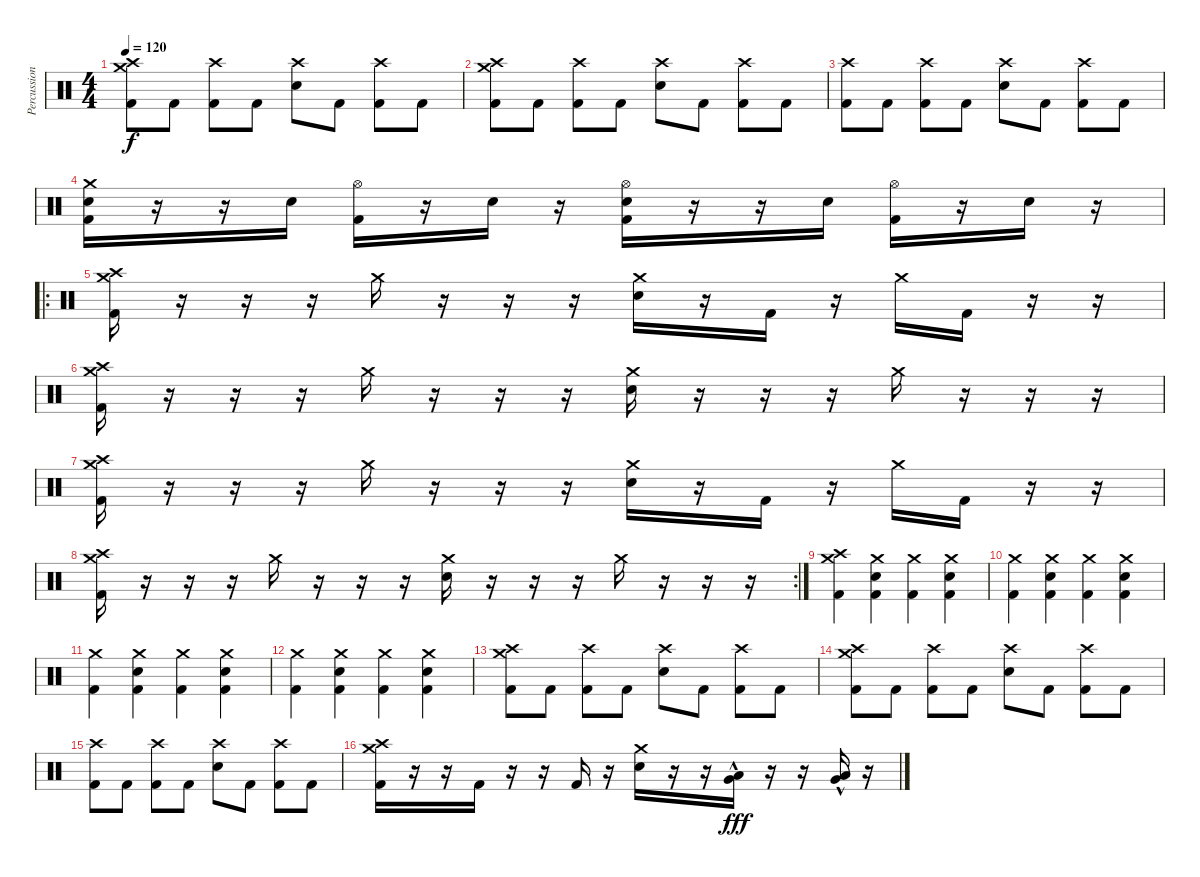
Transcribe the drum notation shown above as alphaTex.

\track ("Percussion" "Percussion") {instrument percussion}
\staff {score}
\articulation defaults
\ts (4 4)
\tempo 120
\clef neutral
\ks c
("Crash high (hit)" "Crash medium (hit)" "Kick (hit) 2").8{dy f} "Kick (hit) 2".8 ("Crash high (hit)" "Kick (hit) 2").8 "Kick (hit) 2".8 ("Crash high (hit)" "Electric Snare (hit)").8 "Kick (hit) 2".8 ("Crash high (hit)" "Kick (hit) 2").8 "Kick (hit) 2".8 |
("Crash high (hit)" "Crash medium (hit)" "Kick (hit) 2").8 "Kick (hit) 2".8 ("Crash high (hit)" "Kick (hit) 2").8 "Kick (hit) 2".8 ("Crash high (hit)" "Electric Snare (hit)").8 "Kick (hit) 2".8 ("Crash high (hit)" "Kick (hit) 2").8 "Kick (hit) 2".8 |
("Crash high (hit)" "Kick (hit) 2").8 "Kick (hit) 2".8 ("Crash high (hit)" "Kick (hit) 2").8 "Kick (hit) 2".8 ("Crash high (hit)" "Electric Snare (hit)").8 "Kick (hit) 2".8 ("Crash high (hit)" "Kick (hit) 2").8 "Kick (hit) 2".8 |
("Crash medium (hit)" "Kick (hit) 2" "Electric Snare (hit)").16 r.16 r.16 "Electric Snare (hit)".16 ("Hi-Hat (open)" "Kick (hit) 2").16 r.16 "Electric Snare (hit)".16 r.16 ("Hi-Hat (open)" "Kick (hit) 2" "Electric Snare (hit)").16 r.16 r.16 "Electric Snare (hit)".16 ("Hi-Hat (open)" "Kick (hit) 2").16 r.16 "Electric Snare (hit)".16 r.16 |
\ro
("Crash medium (hit)" "Crash high (hit)" "Kick (hit) 2").16 r.16 r.16 r.16 "Crash medium (hit)".16 r.16 r.16 r.16 ("Crash medium (hit)" "Electric Snare (hit)").16 r.16 "Kick (hit) 2".16 r.16 "Crash medium (hit)".16 "Kick (hit) 2".16 r.16 r.16 |
("Crash medium (hit)" "Crash high (hit)" "Kick (hit) 2").16 r.16 r.16 r.16 "Crash medium (hit)".16 r.16 r.16 r.16 ("Crash medium (hit)" "Electric Snare (hit)").16 r.16 r.16 r.16 "Crash medium (hit)".16 r.16 r.16 r.16 |
("Crash medium (hit)" "Crash high (hit)" "Kick (hit) 2").16 r.16 r.16 r.16 "Crash medium (hit)".16 r.16 r.16 r.16 ("Crash medium (hit)" "Electric Snare (hit)").16 r.16 "Kick (hit) 2".16 r.16 "Crash medium (hit)".16 "Kick (hit) 2".16 r.16 r.16 |
\rc 2
("Crash medium (hit)" "Crash high (hit)" "Kick (hit) 2").16 r.16 r.16 r.16 "Crash medium (hit)".16 r.16 r.16 r.16 ("Crash medium (hit)" "Electric Snare (hit)").16 r.16 r.16 r.16 "Crash medium (hit)".16 r.16 r.16 r.16 |
("Crash medium (hit)" "Crash high (hit)" "Kick (hit) 2").4 ("Crash medium (hit)" "Electric Snare (hit)" "Kick (hit) 2").4 ("Crash medium (hit)" "Kick (hit) 2").4 ("Crash medium (hit)" "Electric Snare (hit)" "Kick (hit) 2").4 |
("Crash medium (hit)" "Kick (hit) 2").4 ("Crash medium (hit)" "Electric Snare (hit)" "Kick (hit) 2").4 ("Crash medium (hit)" "Kick (hit) 2").4 ("Crash medium (hit)" "Electric Snare (hit)" "Kick (hit) 2").4 |
("Crash medium (hit)" "Kick (hit) 2").4 ("Crash medium (hit)" "Electric Snare (hit)" "Kick (hit) 2").4 ("Crash medium (hit)" "Kick (hit) 2").4 ("Crash medium (hit)" "Electric Snare (hit)" "Kick (hit) 2").4 |
("Crash medium (hit)" "Kick (hit) 2").4 ("Crash medium (hit)" "Electric Snare (hit)" "Kick (hit) 2").4 ("Crash medium (hit)" "Kick (hit) 2").4 ("Crash medium (hit)" "Electric Snare (hit)" "Kick (hit) 2").4 |
("Crash high (hit)" "Crash medium (hit)" "Kick (hit) 2").8 "Kick (hit) 2".8 ("Crash high (hit)" "Kick (hit) 2").8 "Kick (hit) 2".8 ("Crash high (hit)" "Electric Snare (hit)").8 "Kick (hit) 2".8 ("Crash high (hit)" "Kick (hit) 2").8 "Kick (hit) 2".8 |
("Crash high (hit)" "Crash medium (hit)" "Kick (hit) 2").8 "Kick (hit) 2".8 ("Crash high (hit)" "Kick (hit) 2").8 "Kick (hit) 2".8 ("Crash high (hit)" "Electric Snare (hit)").8 "Kick (hit) 2".8 ("Crash high (hit)" "Kick (hit) 2").8 "Kick (hit) 2".8 |
("Crash high (hit)" "Kick (hit) 2").8 "Kick (hit) 2".8 ("Crash high (hit)" "Kick (hit) 2").8 "Kick (hit) 2".8 ("Crash high (hit)" "Electric Snare (hit)").8 "Kick (hit) 2".8 ("Crash high (hit)" "Kick (hit) 2").8 "Kick (hit) 2".8 |
("Crash medium (hit)" "Crash high (hit)" "Kick (hit) 2").16 r.16 r.16 "Kick (hit) 2".16 r.16 r.16 "Kick (hit) 2".16 r.16 ("Crash medium (hit)" "Electric Snare (hit)").16 r.16 r.16 ("Low Floor Tom (hit)"{hac} "Very Low Tom (hit)"{hac}).16{dy fff} r.16 r.16 ("Low Floor Tom (hit)"{hac} "Very Low Tom (hit)"{hac}).16 r.16
